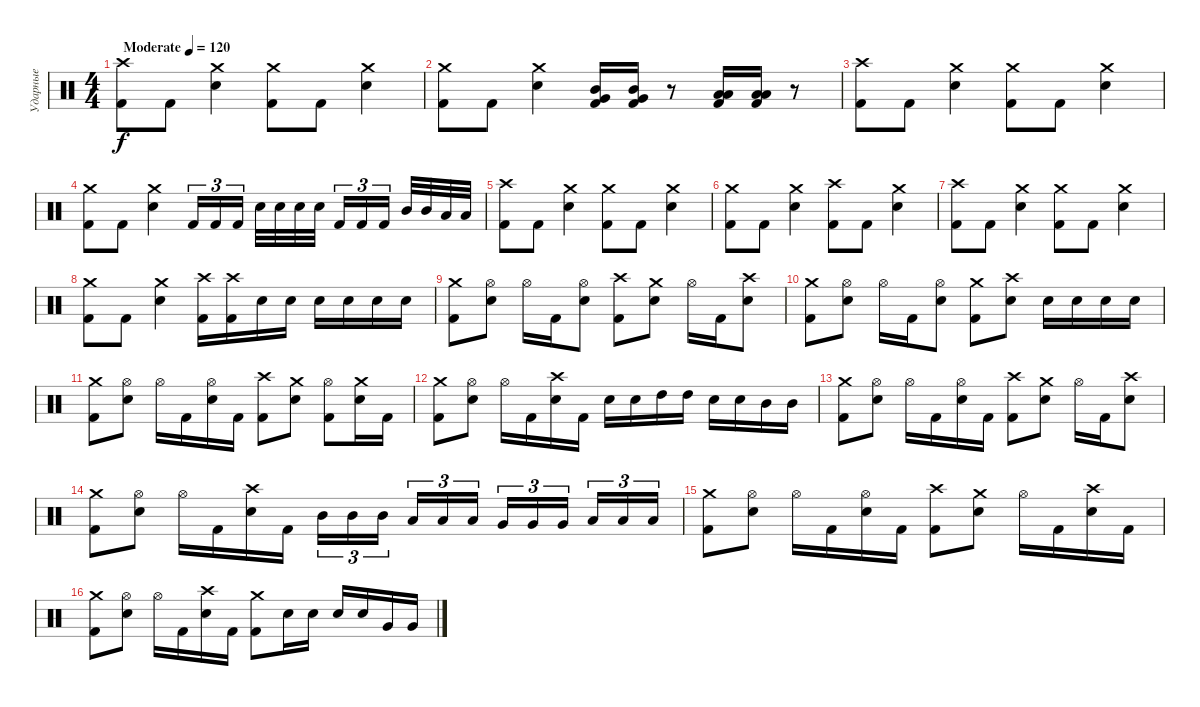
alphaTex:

\track ("Ударные" "Ударные") {instrument percussion}
\staff {score}
\articulation defaults
\ts (4 4)
\tempo (120 "Moderate")
\clef neutral
\ks c
("Crash high (hit)" "Kick (hit) 2").8{dy f} "Kick (hit) 2".8 ("Crash medium (hit)" "Electric Snare (hit)").4 ("Crash medium (hit)" "Kick (hit) 2").8 "Kick (hit) 2".8 ("Crash medium (hit)" "Electric Snare (hit)").4 |
("Crash medium (hit)" "Kick (hit) 2").8 "Kick (hit) 2".8 ("Crash medium (hit)" "Electric Snare (hit)").4 ("Mid Tom (hit)" "Very Low Tom (hit)" "Kick (hit) 2").16 ("Mid Tom (hit)" "Very Low Tom (hit)" "Kick (hit) 2").16 r.8 ("Low Tom (hit)" "Low Floor Tom (hit)" "Kick (hit) 2").16 ("Low Tom (hit)" "Low Floor Tom (hit)" "Kick (hit) 2").16 r.8 |
("Crash high (hit)" "Kick (hit) 2").8 "Kick (hit) 2".8 ("Crash medium (hit)" "Electric Snare (hit)").4 ("Crash medium (hit)" "Kick (hit) 2").8 "Kick (hit) 2".8 ("Crash medium (hit)" "Electric Snare (hit)").4 |
("Crash medium (hit)" "Kick (hit) 2").8 "Kick (hit) 2".8 ("Crash medium (hit)" "Electric Snare (hit)").4 "Kick (hit) 2".16{tu (3 2)} "Kick (hit) 2".16{tu (3 2)} "Kick (hit) 2".16{tu (3 2) beam splitsecondary} "Electric Snare (hit)".32 "Electric Snare (hit)".32 "Electric Snare (hit)".32 "Electric Snare (hit)".32 "Kick (hit) 2".16{tu (3 2)} "Kick (hit) 2".16{tu (3 2)} "Kick (hit) 2".16{tu (3 2) beam splitsecondary} "Mid Tom (hit)".32 "Mid Tom (hit)".32 "Low Tom (hit)".32 "Low Tom (hit)".32 |
("Crash high (hit)" "Kick (hit) 2").8 "Kick (hit) 2".8 ("Crash medium (hit)" "Electric Snare (hit)").4 ("Crash medium (hit)" "Kick (hit) 2").8 "Kick (hit) 2".8 ("Crash medium (hit)" "Electric Snare (hit)").4 |
("Crash medium (hit)" "Kick (hit) 2").8 "Kick (hit) 2".8 ("Crash medium (hit)" "Electric Snare (hit)").4 ("Crash high (hit)" "Kick (hit) 2").8 "Kick (hit) 2".8 ("Crash medium (hit)" "Electric Snare (hit)").4 |
("Crash high (hit)" "Kick (hit) 2").8 "Kick (hit) 2".8 ("Crash medium (hit)" "Electric Snare (hit)").4 ("Crash medium (hit)" "Kick (hit) 2").8 "Kick (hit) 2".8 ("Crash medium (hit)" "Electric Snare (hit)").4 |
("Crash medium (hit)" "Kick (hit) 2").8 "Kick (hit) 2".8 ("Crash medium (hit)" "Electric Snare (hit)").4 ("Crash high (hit)" "Kick (hit) 2").16 ("Crash high (hit)" "Kick (hit) 2").16 "Electric Snare (hit)".16 "Electric Snare (hit)".16 "Electric Snare (hit)".16 "Electric Snare (hit)".16 "Electric Snare (hit)".16 "Electric Snare (hit)".16 |
("Crash medium (hit)" "Kick (hit) 2").8 ("Hi-Hat (open)" "Electric Snare (hit)").8 "Hi-Hat (open)".16 "Kick (hit) 2".16 ("Hi-Hat (open)" "Electric Snare (hit)").8 ("Crash high (hit)" "Kick (hit) 2").8 ("Crash medium (hit)" "Electric Snare (hit)").8 "Hi-Hat (open)".16 "Kick (hit) 2".16 ("Crash high (hit)" "Electric Snare (hit)").8 |
("Crash medium (hit)" "Kick (hit) 2").8 ("Hi-Hat (open)" "Electric Snare (hit)").8 "Hi-Hat (open)".16 "Kick (hit) 2".16 ("Hi-Hat (open)" "Electric Snare (hit)").8 ("Crash medium (hit)" "Kick (hit) 2").8 ("Crash high (hit)" "Electric Snare (hit)").8 "Electric Snare (hit)".16 "Electric Snare (hit)".16 "Electric Snare (hit)".16 "Electric Snare (hit)".16 |
("Crash medium (hit)" "Kick (hit) 2").8 ("Hi-Hat (open)" "Electric Snare (hit)").8 "Hi-Hat (open)".16 "Kick (hit) 2".16 ("Hi-Hat (open)" "Electric Snare (hit)").16 "Kick (hit) 2".16 ("Crash high (hit)" "Kick (hit) 2").8 ("Crash medium (hit)" "Electric Snare (hit)").8 ("Hi-Hat (open)" "Kick (hit) 2").8 ("Crash medium (hit)" "Electric Snare (hit)").16 "Kick (hit) 2".16 |
("Crash medium (hit)" "Kick (hit) 2").8 ("Hi-Hat (open)" "Electric Snare (hit)").8 "Hi-Hat (open)".16 "Kick (hit) 2".16 ("Crash high (hit)" "Electric Snare (hit)").16 "Kick (hit) 2".16 "Electric Snare (hit)".16 "Electric Snare (hit)".16 "High Tom (hit)".16 "High Tom (hit)".16 "Electric Snare (hit)".16 "Electric Snare (hit)".16 "Mid Tom (hit)".16 "Mid Tom (hit)".16 |
("Crash medium (hit)" "Kick (hit) 2").8 ("Hi-Hat (open)" "Electric Snare (hit)").8 "Hi-Hat (open)".16 "Kick (hit) 2".16 ("Hi-Hat (open)" "Electric Snare (hit)").16 "Kick (hit) 2".16 ("Crash high (hit)" "Kick (hit) 2").8 ("Crash medium (hit)" "Electric Snare (hit)").8 "Hi-Hat (open)".16 "Kick (hit) 2".16 ("Crash high (hit)" "Electric Snare (hit)").8 |
("Crash medium (hit)" "Kick (hit) 2").8 ("Hi-Hat (open)" "Electric Snare (hit)").8 "Hi-Hat (open)".16 "Kick (hit) 2".16 ("Crash high (hit)" "Electric Snare (hit)").16 "Kick (hit) 2".16 "Mid Tom (hit)".16{tu (3 2)} "Mid Tom (hit)".16{tu (3 2)} "Mid Tom (hit)".16{tu (3 2) beam splitsecondary} "Low Tom (hit)".16{tu (3 2)} "Low Tom (hit)".16{tu (3 2)} "Low Tom (hit)".16{tu (3 2)} "Very Low Tom (hit)".16{tu (3 2)} "Very Low Tom (hit)".16{tu (3 2)} "Very Low Tom (hit)".16{tu (3 2) beam splitsecondary} "Low Floor Tom (hit)".16{tu (3 2)} "Low Floor Tom (hit)".16{tu (3 2)} "Low Floor Tom (hit)".16{tu (3 2)} |
("Crash medium (hit)" "Kick (hit) 2").8 ("Hi-Hat (open)" "Electric Snare (hit)").8 "Hi-Hat (open)".16 "Kick (hit) 2".16 ("Hi-Hat (open)" "Electric Snare (hit)").16 "Kick (hit) 2".16 ("Crash high (hit)" "Kick (hit) 2").8 ("Crash medium (hit)" "Electric Snare (hit)").8 "Hi-Hat (open)".16 "Kick (hit) 2".16 ("Crash high (hit)" "Electric Snare (hit)").16 "Kick (hit) 2".16 |
("Crash medium (hit)" "Kick (hit) 2").8 ("Hi-Hat (open)" "Electric Snare (hit)").8 "Hi-Hat (open)".16 "Kick (hit) 2".16 ("Crash high (hit)" "Electric Snare (hit)").16 "Kick (hit) 2".16 ("Crash medium (hit)" "Kick (hit) 2").8 "Electric Snare (hit)".16 "Electric Snare (hit)".16 "Electric Snare (hit)".16 "Electric Snare (hit)".16 "Very Low Tom (hit)".16 "Very Low Tom (hit)".16
